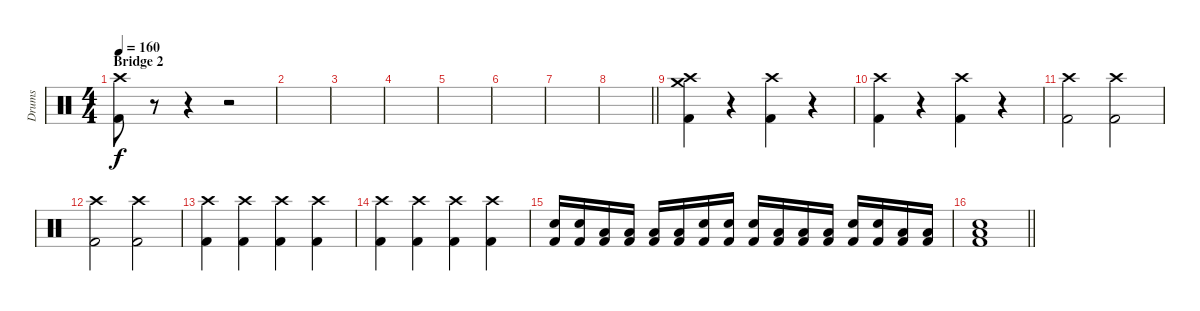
\track ("Drums" "Drums") {instrument percussion}
\staff {score}
\articulation defaults
\ts (4 4)
\section ("" "Bridge 2")
\tempo 160
\clef neutral
\ks c
("Crash high (hit)" "Kick (hit) 2").8{dy f} r.8 r.4 r.2 |
|
|
|
|
|
|
\barLineRight lightlight
|
\section ("" "")
("Crash high (hit)" "Crash medium (hit)" "Kick (hit) 2").4 r.4 ("Crash high (hit)" "Kick (hit) 2").4 r.4 |
("Crash high (hit)" "Kick (hit) 2").4 r.4 ("Crash high (hit)" "Kick (hit) 2").4 r.4 |
("Crash high (hit)" "Kick (hit) 2").2 ("Crash high (hit)" "Kick (hit) 2").2 |
("Crash high (hit)" "Kick (hit) 2").2 ("Crash high (hit)" "Kick (hit) 2").2 |
("Crash high (hit)" "Kick (hit) 2").4 ("Crash high (hit)" "Kick (hit) 2").4 ("Crash high (hit)" "Kick (hit) 2").4 ("Crash high (hit)" "Kick (hit) 2").4 |
("Crash high (hit)" "Kick (hit) 2").4 ("Crash high (hit)" "Kick (hit) 2").4 ("Crash high (hit)" "Kick (hit) 2").4 ("Crash high (hit)" "Kick (hit) 2").4 |
("Electric Snare (hit)" "Kick (hit) 2").16 ("Electric Snare (hit)" "Kick (hit) 2").16 ("Low Floor Tom (hit)" "Kick (hit) 2").16 ("Low Floor Tom (hit)" "Kick (hit) 2").16 ("Low Floor Tom (hit)" "Kick (hit) 2").16 ("Low Floor Tom (hit)" "Kick (hit) 2").16 ("Electric Snare (hit)" "Kick (hit) 2").16 ("Electric Snare (hit)" "Kick (hit) 2").16 ("Electric Snare (hit)" "Kick (hit) 2").16 ("Low Floor Tom (hit)" "Kick (hit) 2").16 ("Low Floor Tom (hit)" "Kick (hit) 2").16 ("Low Floor Tom (hit)" "Kick (hit) 2").16 ("Electric Snare (hit)" "Kick (hit) 2").16 ("Electric Snare (hit)" "Kick (hit) 2").16 ("Low Floor Tom (hit)" "Kick (hit) 2").16 ("Low Floor Tom (hit)" "Kick (hit) 2").16 |
\barLineRight lightlight
("Low Floor Tom (hit)" "Electric Snare (hit)" "Kick (hit) 2").1
